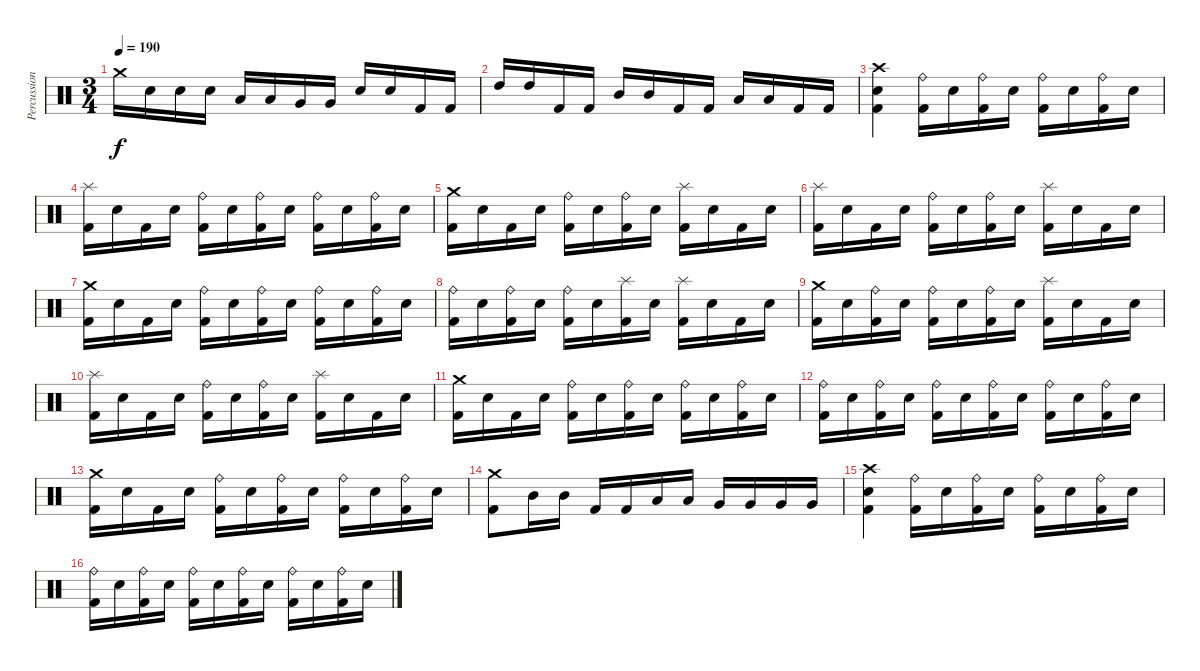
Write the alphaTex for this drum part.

\track ("Percussion" "Percussion") {instrument percussion}
\staff {score}
\articulation defaults
\ts (3 4)
\tempo 190
\clef neutral
\ks c "Crash medium (hit)".16{dy f} "Electric Snare (hit)".16 "Electric Snare (hit)".16 "Electric Snare (hit)".16 "Low Tom (hit)".16 "Low Tom (hit)".16 "Very Low Tom (hit)".16 "Very Low Tom (hit)".16 "Electric Snare (hit)".16 "Electric Snare (hit)".16 "Kick (hit) 2".16 "Kick (hit) 2".16
|
"High Tom (hit)".16 "High Tom (hit)".16 "Kick (hit) 2".16 "Kick (hit) 2".16 "Mid Tom (hit)".16 "Mid Tom (hit)".16 "Kick (hit) 2".16 "Kick (hit) 2".16 "Low Tom (hit)".16 "Low Tom (hit)".16 "Kick (hit) 2".16 "Kick (hit) 2".16 |
("Crash high (hit)" "Electric Snare (hit)" "Kick (hit) 2").4 ("Ride (bell)" "Kick (hit) 2").16 "Electric Snare (hit)".16 ("Ride (bell)" "Kick (hit) 2").16 "Electric Snare (hit)".16 ("Ride (bell)" "Kick (hit) 2").16 "Electric Snare (hit)".16 ("Ride (bell)" "Kick (hit) 2").16 "Electric Snare (hit)".16 |
("Splash (hit)" "Kick (hit) 2").16 "Electric Snare (hit)".16 "Kick (hit) 2".16 "Electric Snare (hit)".16 ("Ride (bell)" "Kick (hit) 2").16 "Electric Snare (hit)".16 ("Ride (bell)" "Kick (hit) 2").16 "Electric Snare (hit)".16 ("Ride (bell)" "Kick (hit) 2").16 "Electric Snare (hit)".16 ("Ride (bell)" "Kick (hit) 2").16 "Electric Snare (hit)".16 |
("Crash medium (hit)" "Kick (hit) 2").16 "Electric Snare (hit)".16 "Kick (hit) 2".16 "Electric Snare (hit)".16 ("Ride (bell)" "Kick (hit) 2").16 "Electric Snare (hit)".16 ("Ride (bell)" "Kick (hit) 2").16 "Electric Snare (hit)".16 ("Splash (hit)" "Kick (hit) 2").16 "Electric Snare (hit)".16 "Kick (hit) 2".16 "Electric Snare (hit)".16 |
("Splash (hit)" "Kick (hit) 2").16 "Electric Snare (hit)".16 "Kick (hit) 2".16 "Electric Snare (hit)".16 ("Ride (bell)" "Kick (hit) 2").16 "Electric Snare (hit)".16 ("Ride (bell)" "Kick (hit) 2").16 "Electric Snare (hit)".16 ("Splash (hit)" "Kick (hit) 2").16 "Electric Snare (hit)".16 "Kick (hit) 2".16 "Electric Snare (hit)".16 |
("Crash medium (hit)" "Kick (hit) 2").16 "Electric Snare (hit)".16 "Kick (hit) 2".16 "Electric Snare (hit)".16 ("Ride (bell)" "Kick (hit) 2").16 "Electric Snare (hit)".16 ("Ride (bell)" "Kick (hit) 2").16 "Electric Snare (hit)".16 ("Ride (bell)" "Kick (hit) 2").16 "Electric Snare (hit)".16 ("Ride (bell)" "Kick (hit) 2").16 "Electric Snare (hit)".16 |
("Ride (bell)" "Kick (hit) 2").16 "Electric Snare (hit)".16 ("Ride (bell)" "Kick (hit) 2").16 "Electric Snare (hit)".16 ("Ride (bell)" "Kick (hit) 2").16 "Electric Snare (hit)".16 ("Splash (hit)" "Kick (hit) 2").16 "Electric Snare (hit)".16 ("Splash (hit)" "Kick (hit) 2").16 "Electric Snare (hit)".16 "Kick (hit) 2".16 "Electric Snare (hit)".16 |
("Crash medium (hit)" "Kick (hit) 2").16 "Electric Snare (hit)".16 ("Ride (bell)" "Kick (hit) 2").16 "Electric Snare (hit)".16 ("Ride (bell)" "Kick (hit) 2").16 "Electric Snare (hit)".16 ("Ride (bell)" "Kick (hit) 2").16 "Electric Snare (hit)".16 ("Splash (hit)" "Kick (hit) 2").16 "Electric Snare (hit)".16 "Kick (hit) 2".16 "Electric Snare (hit)".16 |
("Splash (hit)" "Kick (hit) 2").16 "Electric Snare (hit)".16 "Kick (hit) 2".16 "Electric Snare (hit)".16 ("Ride (bell)" "Kick (hit) 2").16 "Electric Snare (hit)".16 ("Ride (bell)" "Kick (hit) 2").16 "Electric Snare (hit)".16 ("Splash (hit)" "Kick (hit) 2").16 "Electric Snare (hit)".16 "Kick (hit) 2".16 "Electric Snare (hit)".16 |
("Crash medium (hit)" "Kick (hit) 2").16 "Electric Snare (hit)".16 "Kick (hit) 2".16 "Electric Snare (hit)".16 ("Ride (bell)" "Kick (hit) 2").16 "Electric Snare (hit)".16 ("Ride (bell)" "Kick (hit) 2").16 "Electric Snare (hit)".16 ("Ride (bell)" "Kick (hit) 2").16 "Electric Snare (hit)".16 ("Ride (bell)" "Kick (hit) 2").16 "Electric Snare (hit)".16 |
("Ride (bell)" "Kick (hit) 2").16 "Electric Snare (hit)".16 ("Ride (bell)" "Kick (hit) 2").16 "Electric Snare (hit)".16 ("Ride (bell)" "Kick (hit) 2").16 "Electric Snare (hit)".16 ("Ride (bell)" "Kick (hit) 2").16 "Electric Snare (hit)".16 ("Ride (bell)" "Kick (hit) 2").16 "Electric Snare (hit)".16 ("Ride (bell)" "Kick (hit) 2").16 "Electric Snare (hit)".16 |
("Crash medium (hit)" "Kick (hit) 2").16 "Electric Snare (hit)".16 "Kick (hit) 2".16 "Electric Snare (hit)".16 ("Ride (bell)" "Kick (hit) 2").16 "Electric Snare (hit)".16 ("Ride (bell)" "Kick (hit) 2").16 "Electric Snare (hit)".16 ("Ride (bell)" "Kick (hit) 2").16 "Electric Snare (hit)".16 ("Ride (bell)" "Kick (hit) 2").16 "Electric Snare (hit)".16 |
("Crash medium (hit)" "Kick (hit) 2").8 "Mid Tom (hit)".16 "Mid Tom (hit)".16 "Kick (hit) 2".16 "Kick (hit) 2".16 "Low Tom (hit)".16 "Low Tom (hit)".16 "Very Low Tom (hit)".16 "Very Low Tom (hit)".16 "Very Low Tom (hit)".16 "Very Low Tom (hit)".16 |
("Crash high (hit)" "Electric Snare (hit)" "Kick (hit) 2").4 ("Ride (bell)" "Kick (hit) 2").16 "Electric Snare (hit)".16 ("Ride (bell)" "Kick (hit) 2").16 "Electric Snare (hit)".16 ("Ride (bell)" "Kick (hit) 2").16 "Electric Snare (hit)".16 ("Ride (bell)" "Kick (hit) 2").16 "Electric Snare (hit)".16 |
("Ride (bell)" "Kick (hit) 2").16 "Electric Snare (hit)".16 ("Ride (bell)" "Kick (hit) 2").16 "Electric Snare (hit)".16 ("Ride (bell)" "Kick (hit) 2").16 "Electric Snare (hit)".16 ("Ride (bell)" "Kick (hit) 2").16 "Electric Snare (hit)".16 ("Ride (bell)" "Kick (hit) 2").16 "Electric Snare (hit)".16 ("Ride (bell)" "Kick (hit) 2").16 "Electric Snare (hit)".16
